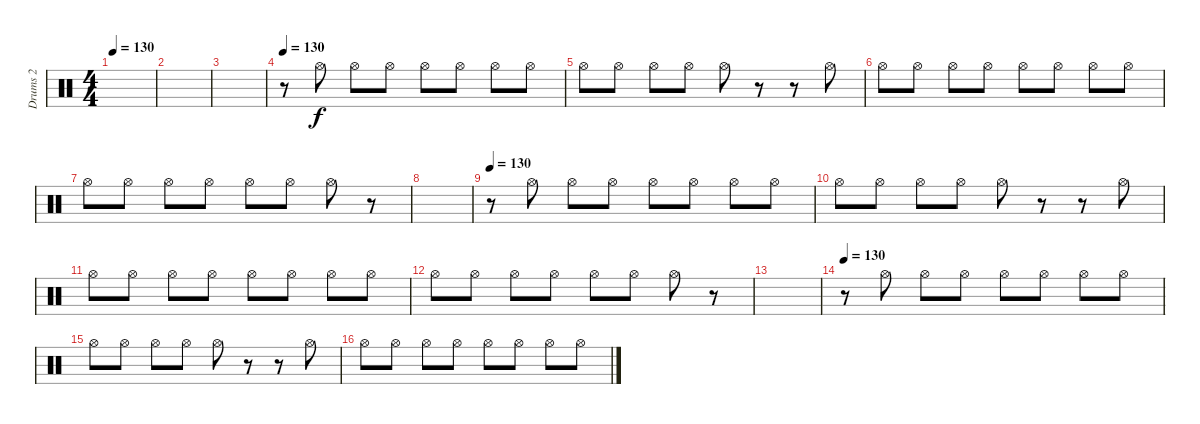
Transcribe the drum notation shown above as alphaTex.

\track ("Drums 2" "Drums 2") {instrument percussion}
\staff {score}
\articulation defaults
\ts (4 4)
\tempo 130
\clef neutral
\ks c
|
|
|
\tempo 130
r.8 "Hi-Hat (open)".8 "Hi-Hat (open)".8 "Hi-Hat (open)".8 "Hi-Hat (open)".8 "Hi-Hat (open)".8 "Hi-Hat (open)".8 "Hi-Hat (open)".8 |
"Hi-Hat (open)".8 "Hi-Hat (open)".8 "Hi-Hat (open)".8 "Hi-Hat (open)".8 "Hi-Hat (open)".8 r.8 r.8 "Hi-Hat (open)".8 |
"Hi-Hat (open)".8 "Hi-Hat (open)".8 "Hi-Hat (open)".8 "Hi-Hat (open)".8 "Hi-Hat (open)".8 "Hi-Hat (open)".8 "Hi-Hat (open)".8 "Hi-Hat (open)".8 |
"Hi-Hat (open)".8 "Hi-Hat (open)".8 "Hi-Hat (open)".8 "Hi-Hat (open)".8 "Hi-Hat (open)".8 "Hi-Hat (open)".8 "Hi-Hat (open)".8 r.8 |
|
\tempo 130
r.8 "Hi-Hat (open)".8 "Hi-Hat (open)".8 "Hi-Hat (open)".8 "Hi-Hat (open)".8 "Hi-Hat (open)".8 "Hi-Hat (open)".8 "Hi-Hat (open)".8 |
"Hi-Hat (open)".8 "Hi-Hat (open)".8 "Hi-Hat (open)".8 "Hi-Hat (open)".8 "Hi-Hat (open)".8 r.8 r.8 "Hi-Hat (open)".8 |
"Hi-Hat (open)".8 "Hi-Hat (open)".8 "Hi-Hat (open)".8 "Hi-Hat (open)".8 "Hi-Hat (open)".8 "Hi-Hat (open)".8 "Hi-Hat (open)".8 "Hi-Hat (open)".8 |
"Hi-Hat (open)".8 "Hi-Hat (open)".8 "Hi-Hat (open)".8 "Hi-Hat (open)".8 "Hi-Hat (open)".8 "Hi-Hat (open)".8 "Hi-Hat (open)".8 r.8 |
|
\tempo 130
r.8 "Hi-Hat (open)".8 "Hi-Hat (open)".8 "Hi-Hat (open)".8 "Hi-Hat (open)".8 "Hi-Hat (open)".8 "Hi-Hat (open)".8 "Hi-Hat (open)".8 |
"Hi-Hat (open)".8 "Hi-Hat (open)".8 "Hi-Hat (open)".8 "Hi-Hat (open)".8 "Hi-Hat (open)".8 r.8 r.8 "Hi-Hat (open)".8 |
"Hi-Hat (open)".8 "Hi-Hat (open)".8 "Hi-Hat (open)".8 "Hi-Hat (open)".8 "Hi-Hat (open)".8 "Hi-Hat (open)".8 "Hi-Hat (open)".8 "Hi-Hat (open)".8
